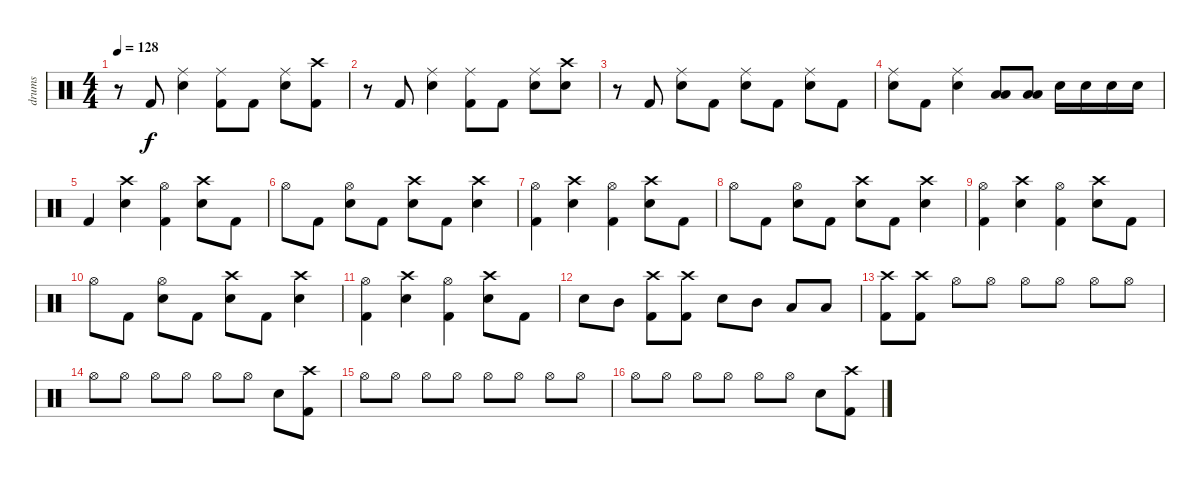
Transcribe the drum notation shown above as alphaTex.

\track ("drums" "drums") {instrument percussion}
\staff {score}
\articulation defaults
\ts (4 4)
\tempo 128
\clef neutral
\ks c
r.8{dy f} "Kick (hit) 2".8 ("Ride (middle)" "Electric Snare (hit)").4 ("Ride (middle)" "Kick (hit) 2").8 "Kick (hit) 2".8 ("Ride (middle)" "Electric Snare (hit)").8 ("Crash high (hit)" "Kick (hit) 2").8 |
r.8 "Kick (hit) 2".8 ("Ride (middle)" "Electric Snare (hit)").4 ("Ride (middle)" "Kick (hit) 2").8 "Kick (hit) 2".8 ("Ride (middle)" "Electric Snare (hit)").8 ("Crash high (hit)" "Electric Snare (hit)").8 |
r.8 "Kick (hit) 2".8 ("Ride (middle)" "Electric Snare (hit)").8 "Kick (hit) 2".8 ("Ride (middle)" "Electric Snare (hit)").8 "Kick (hit) 2".8 ("Ride (middle)" "Electric Snare (hit)").8 "Kick (hit) 2".8 |
("Ride (middle)" "Electric Snare (hit)").8 "Kick (hit) 2".8 ("Ride (middle)" "Electric Snare (hit)").4 ("Low Tom (hit)" "Low Floor Tom (hit)").8 ("Low Tom (hit)" "Low Floor Tom (hit)").8 "Electric Snare (hit)".16 "Electric Snare (hit)".16 "Electric Snare (hit)".16 "Electric Snare (hit)".16 |
"Kick (hit) 2".4 ("Crash high (hit)" "Electric Snare (hit)").4 ("Hi-Hat (open)" "Kick (hit) 2").4 ("Crash high (hit)" "Electric Snare (hit)").8 "Kick (hit) 2".8 |
"Hi-Hat (open)".8 "Kick (hit) 2".8 ("Hi-Hat (open)" "Electric Snare (hit)").8 "Kick (hit) 2".8 ("Crash high (hit)" "Electric Snare (hit)").8 "Kick (hit) 2".8 ("Crash high (hit)" "Electric Snare (hit)").4 |
("Hi-Hat (open)" "Kick (hit) 2").4 ("Crash high (hit)" "Electric Snare (hit)").4 ("Hi-Hat (open)" "Kick (hit) 2").4 ("Crash high (hit)" "Electric Snare (hit)").8 "Kick (hit) 2".8 |
"Hi-Hat (open)".8 "Kick (hit) 2".8 ("Hi-Hat (open)" "Electric Snare (hit)").8 "Kick (hit) 2".8 ("Crash high (hit)" "Electric Snare (hit)").8 "Kick (hit) 2".8 ("Crash high (hit)" "Electric Snare (hit)").4 |
("Hi-Hat (open)" "Kick (hit) 2").4 ("Crash high (hit)" "Electric Snare (hit)").4 ("Hi-Hat (open)" "Kick (hit) 2").4 ("Crash high (hit)" "Electric Snare (hit)").8 "Kick (hit) 2".8 |
"Hi-Hat (open)".8 "Kick (hit) 2".8 ("Hi-Hat (open)" "Electric Snare (hit)").8 "Kick (hit) 2".8 ("Crash high (hit)" "Electric Snare (hit)").8 "Kick (hit) 2".8 ("Crash high (hit)" "Electric Snare (hit)").4 |
("Hi-Hat (open)" "Kick (hit) 2").4 ("Crash high (hit)" "Electric Snare (hit)").4 ("Hi-Hat (open)" "Kick (hit) 2").4 ("Crash high (hit)" "Electric Snare (hit)").8 "Kick (hit) 2".8 |
"Electric Snare (hit)".8 "Mid Tom (hit)".8 ("Crash high (hit)" "Kick (hit) 2").8 ("Crash high (hit)" "Kick (hit) 2").8 "Electric Snare (hit)".8 "Mid Tom (hit)".8 "Low Tom (hit)".8 "Low Floor Tom (hit)".8 |
("Crash high (hit)" "Kick (hit) 2").8 ("Crash high (hit)" "Kick (hit) 2").8 "Hi-Hat (open)".8 "Hi-Hat (open)".8 "Hi-Hat (open)".8 "Hi-Hat (open)".8 "Hi-Hat (open)".8 "Hi-Hat (open)".8 |
"Hi-Hat (open)".8 "Hi-Hat (open)".8 "Hi-Hat (open)".8 "Hi-Hat (open)".8 "Hi-Hat (open)".8 "Hi-Hat (open)".8 "Electric Snare (hit)".8 ("Crash high (hit)" "Kick (hit) 2").8 |
"Hi-Hat (open)".8 "Hi-Hat (open)".8 "Hi-Hat (open)".8 "Hi-Hat (open)".8 "Hi-Hat (open)".8 "Hi-Hat (open)".8 "Hi-Hat (open)".8 "Hi-Hat (open)".8 |
"Hi-Hat (open)".8 "Hi-Hat (open)".8 "Hi-Hat (open)".8 "Hi-Hat (open)".8 "Hi-Hat (open)".8 "Hi-Hat (open)".8 "Electric Snare (hit)".8 ("Crash high (hit)" "Kick (hit) 2").8
